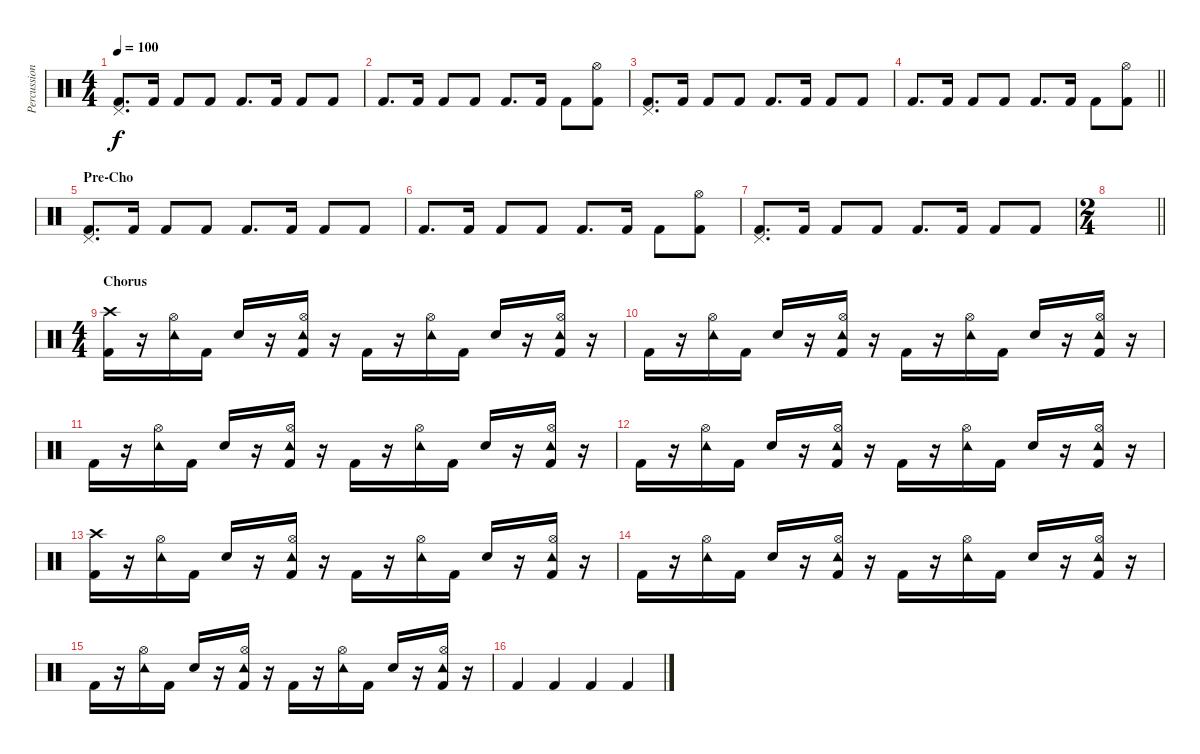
\track ("Percussion" "Percussion") {instrument percussion}
\staff {score}
\articulation defaults
\ts (4 4)
\tempo 100
\clef neutral
\ks c
("Pedal Hi-Hat (hit)" "Kick (hit) 2").8{d dy f} "Kick (hit) 2".16 "Kick (hit) 2".8 "Kick (hit) 2".8 "Kick (hit) 2".8{d} "Kick (hit) 2".16 "Kick (hit) 2".8 "Kick (hit) 2".8 |
"Kick (hit) 2".8{d} "Kick (hit) 2".16 "Kick (hit) 2".8 "Kick (hit) 2".8 "Kick (hit) 2".8{d} "Kick (hit) 2".16 "Kick (hit) 2".8 ("Hi-Hat (open)" "Kick (hit) 2").8 |
("Pedal Hi-Hat (hit)" "Kick (hit) 2").8{d} "Kick (hit) 2".16 "Kick (hit) 2".8 "Kick (hit) 2".8 "Kick (hit) 2".8{d} "Kick (hit) 2".16 "Kick (hit) 2".8 "Kick (hit) 2".8 |
\barLineRight lightlight "Kick (hit) 2".8{d} "Kick (hit) 2".16 "Kick (hit) 2".8 "Kick (hit) 2".8 "Kick (hit) 2".8{d} "Kick (hit) 2".16 "Kick (hit) 2".8
("Hi-Hat (open)" "Kick (hit) 2").8 |
\section ("" "Pre-Cho")
("Pedal Hi-Hat (hit)" "Kick (hit) 2").8{d} "Kick (hit) 2".16 "Kick (hit) 2".8 "Kick (hit) 2".8 "Kick (hit) 2".8{d} "Kick (hit) 2".16 "Kick (hit) 2".8 "Kick (hit) 2".8 |
"Kick (hit) 2".8{d} "Kick (hit) 2".16 "Kick (hit) 2".8 "Kick (hit) 2".8 "Kick (hit) 2".8{d} "Kick (hit) 2".16 "Kick (hit) 2".8 ("Hi-Hat (open)" "Kick (hit) 2").8 |
("Pedal Hi-Hat (hit)" "Kick (hit) 2").8{d} "Kick (hit) 2".16 "Kick (hit) 2".8 "Kick (hit) 2".8 "Kick (hit) 2".8{d} "Kick (hit) 2".16 "Kick (hit) 2".8 "Kick (hit) 2".8 |
\ts (2 4)
\barLineRight lightlight
|
\ts (4 4)
\section ("" "Chorus")
("Crash high (hit)" "Kick (hit) 2").16 r.16 ("Tambourine (hit)" "Hi-Hat (open)").16 "Kick (hit) 2".16 "Electric Snare (hit)".16 r.16 ("Tambourine (hit)" "Hi-Hat (open)" "Kick (hit) 2").16 r.16 "Kick (hit) 2".16 r.16 ("Tambourine (hit)" "Hi-Hat (open)").16 "Kick (hit) 2".16 "Electric Snare (hit)".16 r.16 ("Tambourine (hit)" "Hi-Hat (open)" "Kick (hit) 2").16 r.16 |
"Kick (hit) 2".16 r.16 ("Tambourine (hit)" "Hi-Hat (open)").16 "Kick (hit) 2".16 "Electric Snare (hit)".16 r.16 ("Tambourine (hit)" "Hi-Hat (open)" "Kick (hit) 2").16 r.16 "Kick (hit) 2".16 r.16 ("Tambourine (hit)" "Hi-Hat (open)").16 "Kick (hit) 2".16 "Electric Snare (hit)".16 r.16 ("Tambourine (hit)" "Hi-Hat (open)" "Kick (hit) 2").16 r.16 |
"Kick (hit) 2".16 r.16 ("Tambourine (hit)" "Hi-Hat (open)").16 "Kick (hit) 2".16 "Electric Snare (hit)".16 r.16 ("Tambourine (hit)" "Hi-Hat (open)" "Kick (hit) 2").16 r.16 "Kick (hit) 2".16 r.16 ("Tambourine (hit)" "Hi-Hat (open)").16 "Kick (hit) 2".16 "Electric Snare (hit)".16 r.16 ("Tambourine (hit)" "Hi-Hat (open)" "Kick (hit) 2").16 r.16 |
"Kick (hit) 2".16 r.16 ("Tambourine (hit)" "Hi-Hat (open)").16 "Kick (hit) 2".16 "Electric Snare (hit)".16 r.16 ("Tambourine (hit)" "Hi-Hat (open)" "Kick (hit) 2").16 r.16 "Kick (hit) 2".16 r.16 ("Tambourine (hit)" "Hi-Hat (open)").16 "Kick (hit) 2".16 "Electric Snare (hit)".16 r.16 ("Tambourine (hit)" "Hi-Hat (open)" "Kick (hit) 2").16 r.16 |
("Crash high (hit)" "Kick (hit) 2").16 r.16 ("Tambourine (hit)" "Hi-Hat (open)").16 "Kick (hit) 2".16 "Electric Snare (hit)".16 r.16 ("Tambourine (hit)" "Hi-Hat (open)" "Kick (hit) 2").16 r.16 "Kick (hit) 2".16 r.16 ("Tambourine (hit)" "Hi-Hat (open)").16 "Kick (hit) 2".16 "Electric Snare (hit)".16 r.16 ("Tambourine (hit)" "Hi-Hat (open)" "Kick (hit) 2").16 r.16 |
"Kick (hit) 2".16 r.16 ("Tambourine (hit)" "Hi-Hat (open)").16 "Kick (hit) 2".16 "Electric Snare (hit)".16 r.16 ("Tambourine (hit)" "Hi-Hat (open)" "Kick (hit) 2").16 r.16 "Kick (hit) 2".16 r.16 ("Tambourine (hit)" "Hi-Hat (open)").16 "Kick (hit) 2".16 "Electric Snare (hit)".16 r.16 ("Tambourine (hit)" "Hi-Hat (open)" "Kick (hit) 2").16 r.16 |
"Kick (hit) 2".16 r.16 ("Tambourine (hit)" "Hi-Hat (open)").16 "Kick (hit) 2".16 "Electric Snare (hit)".16 r.16 ("Tambourine (hit)" "Hi-Hat (open)" "Kick (hit) 2").16 r.16 "Kick (hit) 2".16 r.16 ("Tambourine (hit)" "Hi-Hat (open)").16 "Kick (hit) 2".16 "Electric Snare (hit)".16 r.16 ("Tambourine (hit)" "Hi-Hat (open)" "Kick (hit) 2").16 r.16 |
"Kick (hit) 2".4 "Kick (hit) 2".4 "Kick (hit) 2".4 "Kick (hit) 2".4
